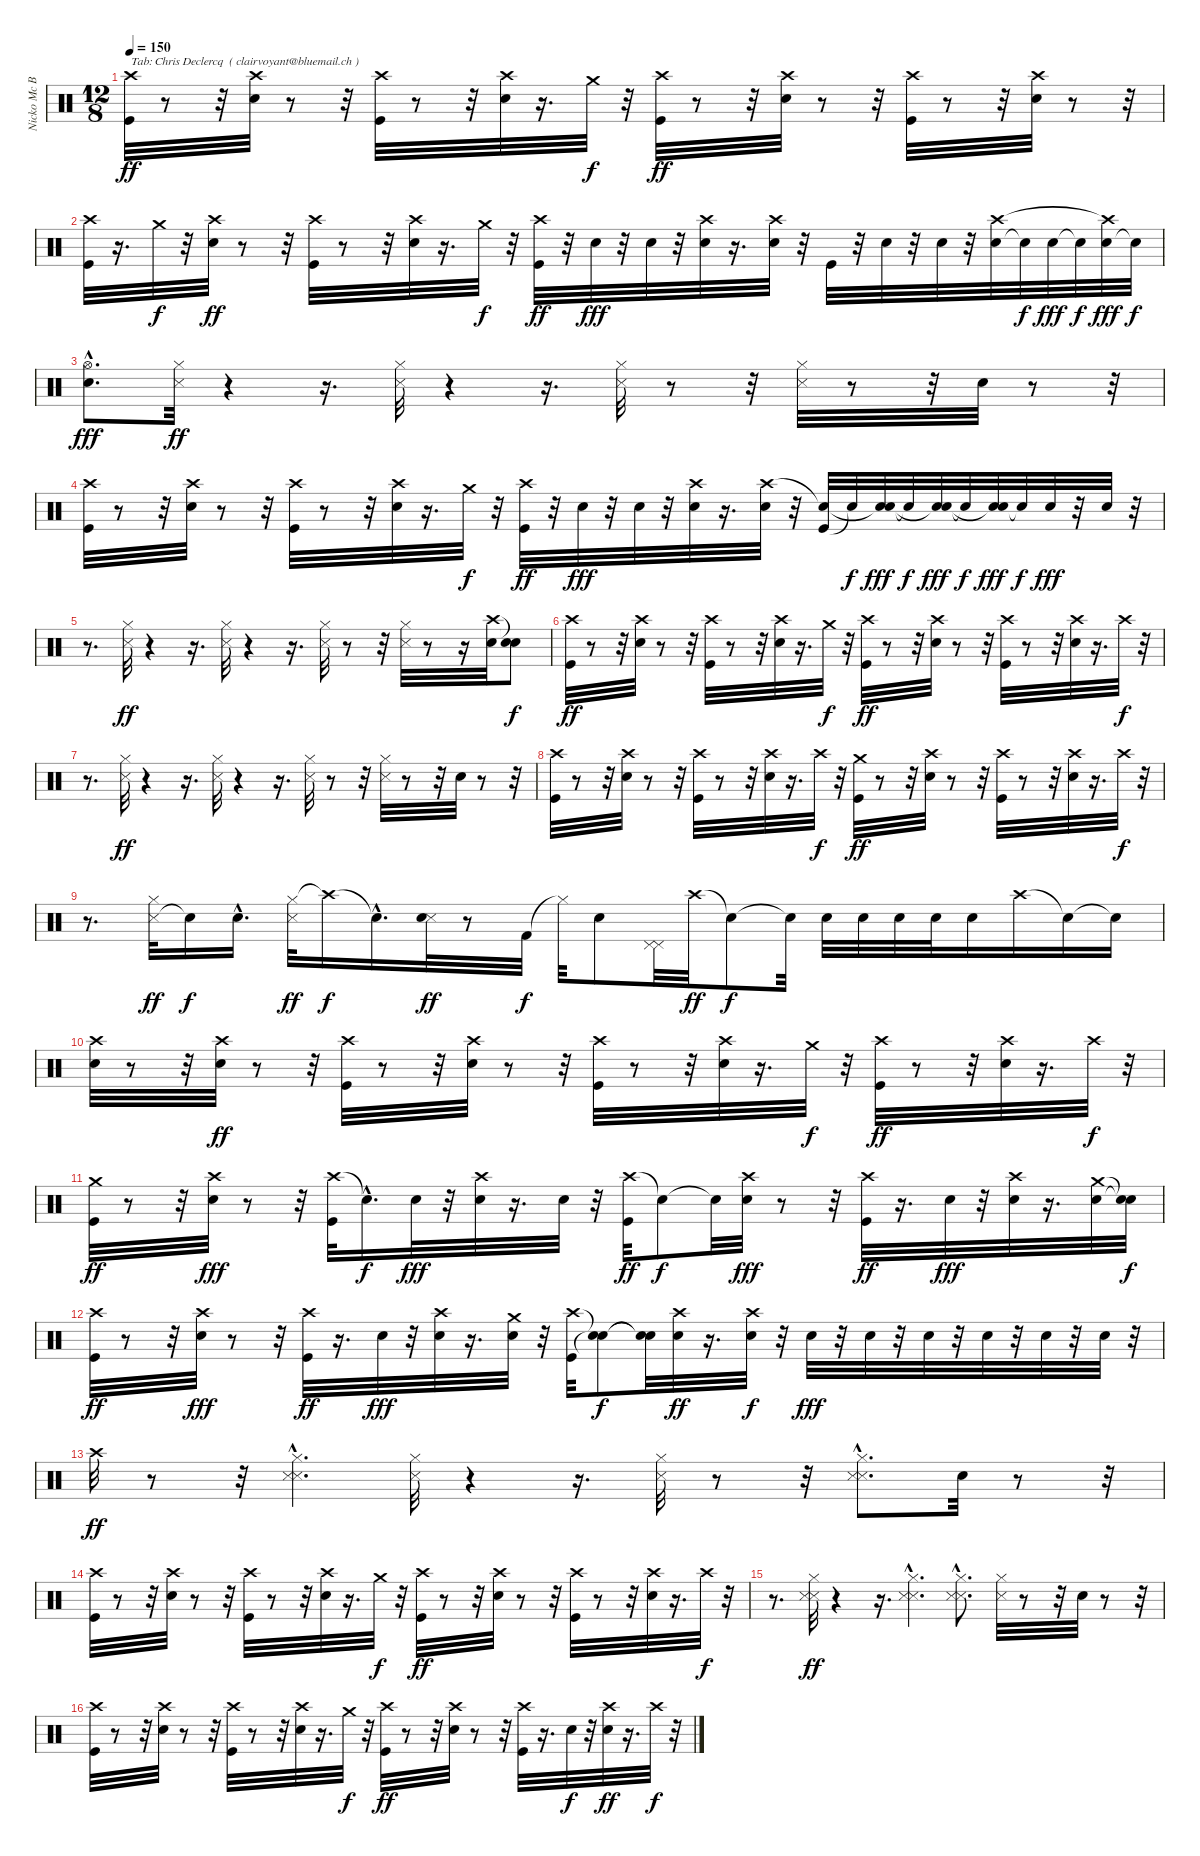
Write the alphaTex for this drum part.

\track ("Nicko Mc Brain  ( drums )" "Nicko Mc B") {instrument percussion}
\staff {score}
\articulation defaults
\ts (12 8)
\tempo 150
\clef neutral
\ks c
("Crash high (hit)" "Kick (hit)").32{txt "Tab: Chris Declercq  ( clairvoyant@bluemail.ch )" dy ff} r.8 r.32 ("Crash high (hit)" "Snare (hit) 2").32 r.8 r.32 ("Crash high (hit)" "Kick (hit)").32 r.8 r.32 ("Crash high (hit)" "Snare (hit) 2").32 r.16{d} "Crash medium (hit)".32{dy f} r.32 ("Crash high (hit)" "Kick (hit)").32{dy ff} r.8 r.32 ("Crash high (hit)" "Snare (hit) 2").32 r.8 r.32 ("Crash high (hit)" "Kick (hit)").32 r.8 r.32 ("Crash high (hit)" "Snare (hit) 2").32 r.8 r.32 |
("Crash high (hit)" "Kick (hit)").32 r.16{d} "Crash medium (hit)".32{dy f} r.32 ("Crash high (hit)" "Snare (hit) 2").32{dy ff} r.8 r.32 ("Crash high (hit)" "Kick (hit)").32 r.8 r.32 ("Crash high (hit)" "Snare (hit) 2").32 r.16{d} "Crash medium (hit)".32{dy f} r.32 ("Crash high (hit)" "Kick (hit)").32{dy ff} r.32 "Snare (hit) 2".32{dy fff} r.32 "Snare (hit) 2".32 r.32 ("Crash high (hit)" "Snare (hit) 2").32 r.16{d} ("Snare (hit) 2" "Crash high (hit)").32 r.32 "Kick (hit)".32 r.32 "Snare (hit) 2".32 r.32 "Snare (hit) 2".32 r.32 ("Snare (hit) 2" "Crash high (hit)").32 "Snare (hit)"{t}.32{dy f} "Snare (hit) 2".32{dy fff} "Snare (hit)"{t}.32{dy f} ("Snare (hit) 2" "Crash high (hit)"{t}).32{dy fff} "Snare (hit)"{t}.32{dy f} |
("Snare (hit) 2"{hac} "Hi-Hat (open)"{hac}).8{d dy fff} ("Hi-Hat (closed)" "Metronome (hit)").32{dy ff} r.4 r.16{d} ("Hi-Hat (closed)" "Metronome (hit)").32 r.4 r.16{d} ("Hi-Hat (closed)" "Metronome (hit)").32 r.8 r.32 ("Hi-Hat (closed)" "Metronome (hit)").32 r.8 r.32 "Snare (hit) 2".32 r.8 r.32 |
("Crash high (hit)" "Kick (hit)").32 r.8 r.32 ("Crash high (hit)" "Snare (hit) 2").32 r.8 r.32 ("Crash high (hit)" "Kick (hit)").32 r.8 r.32 ("Crash high (hit)" "Snare (hit) 2").32 r.16{d} "Crash medium (hit)".32{dy f} r.32 ("Crash high (hit)" "Kick (hit)").32{dy ff} r.32 "Snare (hit) 2".32{dy fff} r.32 "Snare (hit) 2".32 r.32 ("Crash high (hit)" "Snare (hit) 2").32 r.16{d} ("Snare (hit) 2" "Crash high (hit)").32 r.32 ("Kick (hit)" "Snare (hit)"{t}).32 "Snare (hit)"{t}.32{dy f} ("Snare (hit) 2" "Snare (hit)"{t}).32{dy fff} "Snare (hit)"{t}.32{dy f} ("Snare (hit) 2" "Snare (hit)"{t}).32{dy fff} "Snare (hit)"{t}.32{dy f} ("Snare (hit) 2" "Snare (hit)"{t}).32{dy fff} "Snare (hit)"{t}.32{dy f} "Snare (hit) 2".32{dy fff} r.32 "Snare (hit) 2".32 r.32 |
r.8{d} ("Hi-Hat (closed)" "Metronome (hit)").32{dy ff} r.4 r.16{d} ("Hi-Hat (closed)" "Metronome (hit)").32 r.4 r.16{d} ("Hi-Hat (closed)" "Metronome (hit)").32 r.8 r.32 ("Hi-Hat (closed)" "Metronome (hit)").32 r.8 r.16 ("Snare (hit) 2" "Crash high (hit)").32 ("Snare (hit)"{t} "Snare (hit)"{t}).8{dy f} |
("Crash high (hit)" "Kick (hit)").32{dy ff} r.8 r.32 ("Crash high (hit)" "Snare (hit) 2").32 r.8 r.32 ("Crash high (hit)" "Kick (hit)").32 r.8 r.32 ("Crash high (hit)" "Snare (hit) 2").32 r.16{d} "Crash medium (hit)".32{dy f} r.32 ("Crash high (hit)" "Kick (hit)").32{dy ff} r.8 r.32 ("Crash high (hit)" "Snare (hit) 2").32 r.8 r.32 ("Crash high (hit)" "Kick (hit)").32 r.8 r.32 ("Crash high (hit)" "Snare (hit) 2").32 r.16{d} "Crash high (hit)".32{dy f} r.32 |
r.8{d} ("Hi-Hat (closed)" "Metronome (hit)").32{dy ff} r.4 r.16{d} ("Hi-Hat (closed)" "Metronome (hit)").32 r.4 r.16{d} ("Metronome (hit)" "Hi-Hat (closed)").32 r.8 r.32 ("Hi-Hat (closed)" "Metronome (hit)").32 r.8 r.32 "Snare (hit) 2".32 r.8 r.32 |
("Crash high (hit)" "Kick (hit)").32 r.8 r.32 ("Crash high (hit)" "Snare (hit) 2").32 r.8 r.32 ("Crash high (hit)" "Kick (hit)").32 r.8 r.32 ("Crash high (hit)" "Snare (hit) 2").32 r.16{d} "Crash high (hit)".32{dy f} r.32 ("Crash medium (hit)" "Kick (hit)").32{dy ff} r.8 r.32 ("Crash high (hit)" "Snare (hit) 2").32 r.8 r.32 ("Crash high (hit)" "Kick (hit)").32 r.8 r.32 ("Crash high (hit)" "Snare (hit) 2").32 r.16{d} "Crash high (hit)".32{dy f} r.32 |
r.8{d} ("Metronome (hit)" "Hi-Hat (closed)").32{dy ff} "Snare (hit) 2"{t}.16{dy f} "Snare (hit) 2"{hac}.16{d} ("Hi-Hat (closed)" "Metronome (hit)").32{dy ff} "Crash high (hit)"{t}.16{dy f} "Snare (hit)"{hac t}.16{d} ("Metronome (hit)" "Snare (hit) 2").32{dy ff} r.8 "Kick (hit) 2".32{dy f} "Hi-Hat (closed)"{t}.32 "Electric Snare (hit)".8 ("Pedal Hi-Hat (hit)" "Pedal Hi-Hat (hit)").32 "Crash high (hit)".32{dy ff} "Snare (hit) 2"{t}.8{dy f} "Snare (hit)"{t}.32 "Snare (hit) 2".32 "Snare (hit) 2".32 "Snare (hit) 2".32 "Snare (hit) 2".32 "Snare (hit) 2".16 "Crash high (hit)".16 "Snare (hit)"{t}.16 "Snare (hit)"{t}.16 |
("Crash high (hit)" "Snare (hit) 2").32 r.8 r.32 ("Crash high (hit)" "Snare (hit) 2").32{dy ff} r.8 r.32 ("Crash high (hit)" "Kick (hit)").32 r.8 r.32 ("Crash high (hit)" "Snare (hit) 2").32 r.8 r.32 ("Crash high (hit)" "Kick (hit)").32 r.8 r.32 ("Crash high (hit)" "Snare (hit) 2").32 r.16{d} "Crash medium (hit)".32{dy f} r.32 ("Crash high (hit)" "Kick (hit)").32{dy ff} r.8 r.32 ("Crash high (hit)" "Snare (hit) 2").32 r.16{d} "Crash high (hit)".32{dy f} r.32 |
("Crash medium (hit)" "Kick (hit)").32{dy ff} r.8 r.32 ("Crash high (hit)" "Snare (hit) 2").32{dy fff} r.8 r.32 ("Crash high (hit)" "Kick (hit)").32 "Snare (hit)"{hac t}.16{d dy f} "Snare (hit) 2".32{dy fff} r.32 ("Crash high (hit)" "Snare (hit) 2").32 r.16{d} "Snare (hit) 2".32 r.32 ("Crash high (hit)" "Kick (hit)").32{dy ff} "Snare (hit)"{t}.8{dy f} "Snare (hit)"{t}.32 ("Crash high (hit)" "Snare (hit) 2").32{dy fff} r.8 r.32 ("Crash high (hit)" "Kick (hit)").32{dy ff} r.16{d} "Snare (hit) 2".32{dy fff} r.32 ("Crash high (hit)" "Snare (hit) 2").32 r.16{d} ("Crash medium (hit)" "Snare (hit) 2").32 ("Snare (hit)"{t} "Snare (hit)"{t}).32{dy f} |
("Crash high (hit)" "Kick (hit)").32{dy ff} r.8 r.32 ("Crash high (hit)" "Snare (hit) 2").32{dy fff} r.8 r.32 ("Crash high (hit)" "Kick (hit)").32{dy ff} r.16{d} "Snare (hit) 2".32{dy fff} r.32 ("Crash high (hit)" "Snare (hit) 2").32 r.16{d} ("Crash medium (hit)" "Snare (hit) 2").32 r.32 ("Kick (hit)" "Crash high (hit)").32 ("Snare (hit)"{t} "Snare (hit)"{t}).8{dy f} ("Snare (hit)"{t} "Snare (hit)"{t}).32 ("Snare (hit) 2" "Crash high (hit)").32{dy ff} r.16{d} ("Electric Snare (hit)" "Crash high (hit)").32{dy f} r.32 "Snare (hit) 2".32{dy fff} r.32 "Snare (hit) 2".32 r.32 "Snare (hit) 2".32 r.32 "Snare (hit) 2".32 r.32 "Snare (hit) 2".32 r.32 "Snare (hit) 2".32 r.32 |
"Crash high (hit)".32{dy ff} r.8 r.32 ("Metronome (hit)"{hac} "Metronome (hit)" "Hi-Hat (closed)").4{d} ("Metronome (hit)" "Hi-Hat (closed)").32 r.4 r.16{d} ("Metronome (hit)" "Hi-Hat (closed)").32 r.8 r.32 ("Metronome (hit)"{hac} "Hi-Hat (closed)" "Metronome (hit)").8{d} "Snare (hit) 2".32 r.8 r.32 |
("Crash high (hit)" "Kick (hit)").32 r.8 r.32 ("Crash high (hit)" "Snare (hit) 2").32 r.8 r.32 ("Crash high (hit)" "Kick (hit)").32 r.8 r.32 ("Crash high (hit)" "Snare (hit) 2").32 r.16{d} "Crash medium (hit)".32{dy f} r.32 ("Crash high (hit)" "Kick (hit)").32{dy ff} r.8 r.32 ("Crash high (hit)" "Snare (hit) 2").32 r.8 r.32 ("Crash high (hit)" "Kick (hit)").32 r.8 r.32 ("Crash high (hit)" "Snare (hit) 2").32 r.16{d} "Crash high (hit)".32{dy f} r.32 |
r.8{d} ("Metronome (hit)" "Hi-Hat (closed)" "Metronome (hit)").32{dy ff} r.4 r.16{d} ("Metronome (hit)"{hac} "Hi-Hat (closed)" "Metronome (hit)").4{d} ("Metronome (hit)"{hac} "Metronome (hit)" "Hi-Hat (closed)").8{d} ("Metronome (hit)" "Hi-Hat (closed)").32 r.8 r.32 "Snare (hit) 2".32 r.8 r.32 |
("Crash high (hit)" "Kick (hit)").32 r.8 r.32 ("Crash high (hit)" "Snare (hit) 2").32 r.8 r.32 ("Crash high (hit)" "Kick (hit)").32 r.8 r.32 ("Crash high (hit)" "Snare (hit) 2").32 r.16{d} "Crash medium (hit)".32{dy f} r.32 ("Crash high (hit)" "Kick (hit)").32{dy ff} r.8 r.32 ("Crash high (hit)" "Snare (hit) 2").32 r.8 r.32 ("Crash high (hit)" "Kick (hit)").32 r.16{d} "Snare (hit) 2".32{dy f} r.32 ("Crash high (hit)" "Snare (hit) 2").32{dy ff} r.16{d} "Crash high (hit)".32{dy f} r.32
